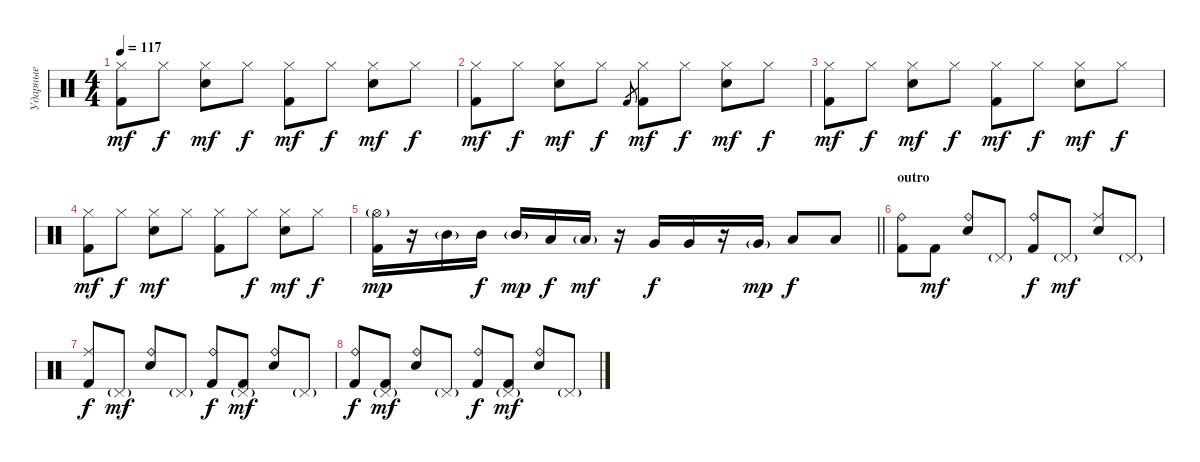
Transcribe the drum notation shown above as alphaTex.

\track ("Ударные" "Ударные") {instrument percussion}
\staff {score}
\articulation defaults
\ts (4 4)
\tempo 117
\clef neutral
\ks c
("Hi-Hat (closed)" "Kick (hit) 2").8{dy mf} "Hi-Hat (closed)".8{dy f} ("Hi-Hat (closed)" "Electric Snare (hit)").8{dy mf} "Hi-Hat (closed)".8{dy f} ("Hi-Hat (closed)" "Kick (hit) 2").8{dy mf} "Hi-Hat (closed)".8{dy f} ("Hi-Hat (closed)" "Electric Snare (hit)").8{dy mf} "Hi-Hat (closed)".8{dy f} |
("Hi-Hat (closed)" "Kick (hit) 2").8{dy mf} "Hi-Hat (closed)".8{dy f} ("Hi-Hat (closed)" "Electric Snare (hit)").8{dy mf} "Hi-Hat (closed)".8{dy f} "Kick (hit) 2".8{gr} ("Hi-Hat (closed)" "Kick (hit) 2").8{dy mf} "Hi-Hat (closed)".8{dy f} ("Hi-Hat (closed)" "Electric Snare (hit)").8{dy mf} "Hi-Hat (closed)".8{dy f} |
("Hi-Hat (closed)" "Kick (hit) 2").8{dy mf} "Hi-Hat (closed)".8{dy f} ("Hi-Hat (closed)" "Electric Snare (hit)").8{dy mf} "Hi-Hat (closed)".8{dy f} ("Hi-Hat (closed)" "Kick (hit) 2").8{dy mf} "Hi-Hat (closed)".8{dy f} ("Hi-Hat (closed)" "Electric Snare (hit)").8{dy mf} "Hi-Hat (closed)".8{dy f} |
("Hi-Hat (closed)" "Kick (hit) 2").8{dy mf} "Hi-Hat (closed)".8{dy f} ("Hi-Hat (closed)" "Electric Snare (hit)").8{dy mf} "Hi-Hat (closed)".8 ("Hi-Hat (closed)" "Kick (hit) 2").8 "Hi-Hat (closed)".8{dy f} ("Hi-Hat (closed)" "Electric Snare (hit)").8{dy mf} "Hi-Hat (closed)".8{dy f} |
\barLineRight lightlight
("Hi-Hat (open)"{g} "Kick (hit) 2").16{dy mp} r.16 "Mid Tom (hit)"{g}.16 "Mid Tom (hit)".16{dy f} "Mid Tom (hit)"{g}.16{dy mp} "Low Tom (hit)".16{dy f} "Low Tom (hit)"{g}.16{dy mf} r.16 "Very Low Tom (hit)".16{dy f} "Very Low Tom (hit)".16 r.16 "Very Low Tom (hit)"{g}.16{dy mp} "Low Floor Tom (hit)".8{dy f} "Low Floor Tom (hit)".8 |
\section ("" "outro")
("Ride (bell)" "Kick (hit) 2").8 "Kick (hit) 2".8{dy mf} ("Ride (bell)" "Electric Snare (hit)").8 "Pedal Hi-Hat (hit)"{g}.8 ("Ride (bell)" "Kick (hit) 2").8{dy f} "Pedal Hi-Hat (hit)"{g}.8{dy mf} ("Ride (middle)" "Electric Snare (hit)").8 "Pedal Hi-Hat (hit)"{g}.8 |
("Ride (middle)" "Kick (hit) 2").8{dy f} "Pedal Hi-Hat (hit)"{g}.8{dy mf} ("Ride (bell)" "Electric Snare (hit)").8 "Pedal Hi-Hat (hit)"{g}.8 ("Ride (bell)" "Kick (hit) 2").8{dy f} ("Pedal Hi-Hat (hit)"{g} "Kick (hit) 2").8{dy mf} ("Ride (bell)" "Electric Snare (hit)").8 "Pedal Hi-Hat (hit)"{g}.8 |
("Ride (bell)" "Kick (hit) 2").8{dy f} ("Pedal Hi-Hat (hit)"{g} "Kick (hit) 2").8{dy mf} ("Ride (bell)" "Electric Snare (hit)").8 "Pedal Hi-Hat (hit)"{g}.8 ("Ride (bell)" "Kick (hit) 2").8{dy f} ("Pedal Hi-Hat (hit)"{g} "Kick (hit) 2").8{dy mf} ("Ride (bell)" "Electric Snare (hit)").8 "Pedal Hi-Hat (hit)"{g}.8
